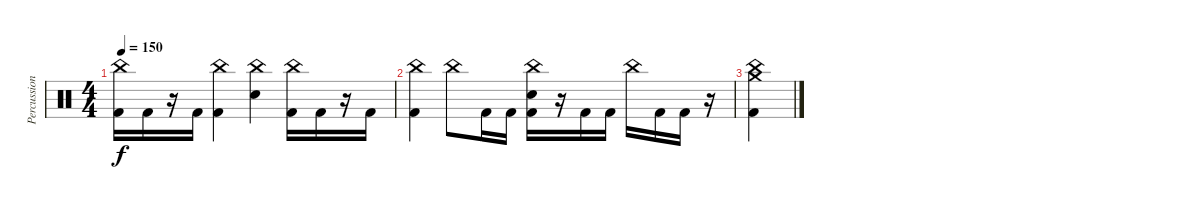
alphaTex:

\track ("Percussion" "Percussion") {instrument percussion}
\staff {score}
\articulation defaults
\ts (4 4)
\tempo 150
\clef neutral
\ks c
("China (hit)" "Kick (hit) 2").16{dy f} "Kick (hit) 2".16 r.16 "Kick (hit) 2".16 ("China (hit)" "Kick (hit) 2").4 ("China (hit)" "Electric Snare (hit)").4 ("China (hit)" "Kick (hit) 2").16 "Kick (hit) 2".16 r.16 "Kick (hit) 2".16 |
("China (hit)" "Kick (hit) 2").4 "China (hit)".8 "Kick (hit) 2".16 "Kick (hit) 2".16 ("China (hit)" "Electric Snare (hit)" "Kick (hit) 2").16 r.16 "Kick (hit) 2".16 "Kick (hit) 2".16 "China (hit)".16 "Kick (hit) 2".16 "Kick (hit) 2".16 r.16 |
("China (hit)" "Crash medium (hit)" "Kick (hit) 2").4
